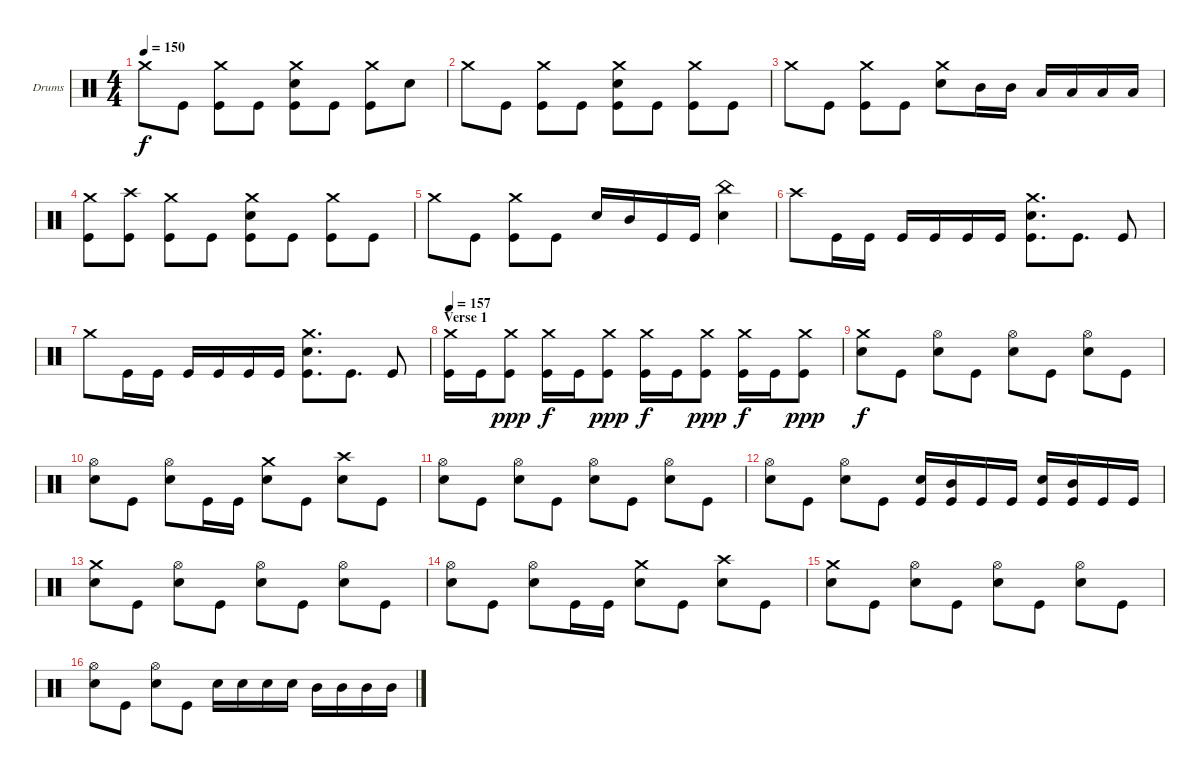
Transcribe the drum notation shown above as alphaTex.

\bracketExtendMode groupsimilarinstruments
\firstSystemTrackNameOrientation horizontal
\otherSystemsTrackNameOrientation horizontal
\track ("Drumkit" "Drums") {instrument percussion}
\staff {score}
\articulation defaults
\ts (4 4)
\tempo 150
\clef neutral
\ks c "Crash medium (hit)".8{dy f} "Kick (hit)".8
("Crash medium (hit)" "Kick (hit)").8 "Kick (hit)".8 ("Crash medium (hit)" "Snare (hit) 2" "Kick (hit)").8 "Kick (hit)".8 ("Crash medium (hit)" "Kick (hit)").8 "Snare (hit) 2".8 |
"Crash medium (hit)".8 "Kick (hit)".8 ("Crash medium (hit)" "Kick (hit)").8 "Kick (hit)".8 ("Crash medium (hit)" "Snare (hit) 2" "Kick (hit)").8 "Kick (hit)".8 ("Crash medium (hit)" "Kick (hit)").8 "Kick (hit)".8 |
"Crash medium (hit)".8 "Kick (hit)".8 ("Crash medium (hit)" "Kick (hit)").8 "Kick (hit)".8 ("Crash medium (hit)" "Snare (hit) 2").8 "Mid Tom (hit)".16 "Mid Tom (hit)".16 "Low Tom (hit)".16 "Low Tom (hit)".16 "Low Tom (hit)".16 "Low Tom (hit)".16 |
("Crash medium (hit)" "Kick (hit)").8 ("Crash high (hit)" "Kick (hit)").8 ("Crash medium (hit)" "Kick (hit)").8 "Kick (hit)".8 ("Crash medium (hit)" "Snare (hit) 2" "Kick (hit)").8 "Kick (hit)".8 ("Crash medium (hit)" "Kick (hit)").8 "Kick (hit)".8 |
"Crash medium (hit)".8 "Kick (hit)".8 ("Crash medium (hit)" "Kick (hit)").8 "Kick (hit)".8 "Snare (hit) 2".16 "Mid Tom (hit)".16 "Kick (hit)".16 "Kick (hit)".16 ("China (hit)" "Snare (hit) 2").4 |
"Crash high (hit)".8 "Kick (hit)".16 "Kick (hit)".16 "Kick (hit)".16 "Kick (hit)".16 "Kick (hit)".16 "Kick (hit)".16 ("Crash medium (hit)" "Snare (hit) 2" "Kick (hit)").8{d} "Kick (hit)".8{d} "Kick (hit)".8 |
"Crash medium (hit)".8 "Kick (hit)".16 "Kick (hit)".16 "Kick (hit)".16 "Kick (hit)".16 "Kick (hit)".16 "Kick (hit)".16 ("Crash medium (hit)" "Snare (hit) 2" "Kick (hit)").8{d} "Kick (hit)".8{d} "Kick (hit)".8 |
\section ("" "Verse 1")
\tempo 157
("Crash medium (hit)" "Kick (hit)").16 "Kick (hit)".16 ("Crash medium (hit)" "Kick (hit)").8{dy ppp} ("Crash medium (hit)" "Kick (hit)").16{dy f} "Kick (hit)".16 ("Crash medium (hit)" "Kick (hit)").8{dy ppp} ("Crash medium (hit)" "Kick (hit)").16{dy f} "Kick (hit)".16 ("Crash medium (hit)" "Kick (hit)").8{dy ppp} ("Crash medium (hit)" "Kick (hit)").16{dy f} "Kick (hit)".16 ("Crash medium (hit)" "Kick (hit)").8{dy ppp} |
("Crash medium (hit)" "Snare (hit) 2").8{dy f} "Kick (hit)".8 ("Hi-Hat (open)" "Snare (hit) 2").8 "Kick (hit)".8 ("Hi-Hat (open)" "Snare (hit) 2").8 "Kick (hit)".8 ("Hi-Hat (open)" "Snare (hit) 2").8 "Kick (hit)".8 |
("Hi-Hat (open)" "Snare (hit) 2").8 "Kick (hit)".8 ("Hi-Hat (open)" "Snare (hit) 2").8 "Kick (hit)".16 "Kick (hit)".16 ("Crash medium (hit)" "Snare (hit) 2").8 "Kick (hit)".8 ("Crash high (hit)" "Snare (hit) 2").8 "Kick (hit)".8 |
("Hi-Hat (open)" "Snare (hit) 2").8 "Kick (hit)".8 ("Hi-Hat (open)" "Snare (hit) 2").8 "Kick (hit)".8 ("Hi-Hat (open)" "Snare (hit) 2").8 "Kick (hit)".8 ("Hi-Hat (open)" "Snare (hit) 2").8 "Kick (hit)".8 |
("Hi-Hat (open)" "Snare (hit) 2").8 "Kick (hit)".8 ("Hi-Hat (open)" "Snare (hit) 2").8 "Kick (hit)".8 ("Snare (hit) 2" "Kick (hit)").16 ("Mid Tom (hit)" "Kick (hit)").16 "Kick (hit)".16 "Kick (hit)".16 ("Snare (hit) 2" "Kick (hit)").16 ("Mid Tom (hit)" "Kick (hit)").16 "Kick (hit)".16 "Kick (hit)".16 |
("Crash medium (hit)" "Snare (hit) 2").8 "Kick (hit)".8 ("Hi-Hat (open)" "Snare (hit) 2").8 "Kick (hit)".8 ("Hi-Hat (open)" "Snare (hit) 2").8 "Kick (hit)".8 ("Hi-Hat (open)" "Snare (hit) 2").8 "Kick (hit)".8 |
("Hi-Hat (open)" "Snare (hit) 2").8 "Kick (hit)".8 ("Hi-Hat (open)" "Snare (hit) 2").8 "Kick (hit)".16 "Kick (hit)".16 ("Crash medium (hit)" "Snare (hit) 2").8 "Kick (hit)".8 ("Crash high (hit)" "Snare (hit) 2").8 "Kick (hit)".8 |
("Crash medium (hit)" "Snare (hit) 2").8 "Kick (hit)".8 ("Hi-Hat (open)" "Snare (hit) 2").8 "Kick (hit)".8 ("Hi-Hat (open)" "Snare (hit) 2").8 "Kick (hit)".8 ("Hi-Hat (open)" "Snare (hit) 2").8 "Kick (hit)".8 |
("Hi-Hat (open)" "Snare (hit) 2").8 "Kick (hit)".8 ("Hi-Hat (open)" "Snare (hit) 2").8 "Kick (hit)".8 "Snare (hit) 2".16 "Snare (hit) 2".16 "Snare (hit) 2".16 "Snare (hit) 2".16 "Mid Tom (hit)".16 "Mid Tom (hit)".16 "Mid Tom (hit)".16 "Mid Tom (hit)".16
